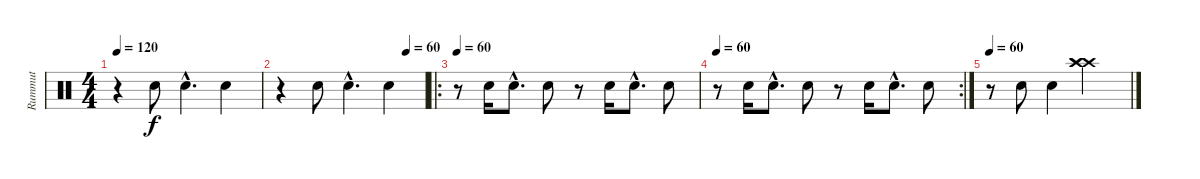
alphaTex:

\track ("Rummut" "Rummut") {instrument percussion}
\staff {score}
\articulation defaults
\ts (4 4)
\tempo 120
\clef neutral
\ks c
r.4{dy f} "Snare (hit) 2".8 "Snare (hit) 2"{hac}.4{d} "Snare (hit) 2".4 |
\tempo (60 0.875)
r.4 "Snare (hit) 2".8 "Snare (hit) 2"{hac}.4{d} "Snare (hit) 2".4 |
\ro
\tempo 60
r.8 "Snare (hit) 2".16 "Snare (hit) 2"{hac}.8{d} "Snare (hit) 2".8 r.8 "Snare (hit) 2".16 "Snare (hit) 2"{hac}.8{d} "Snare (hit) 2".8 |
\rc 2
\tempo 60
r.8 "Snare (hit) 2".16 "Snare (hit) 2"{hac}.8{d} "Snare (hit) 2".8 r.8 "Snare (hit) 2".16 "Snare (hit) 2"{hac}.8{d} "Snare (hit) 2".8 |
\tempo 60
r.8 "Snare (hit) 2".8 "Snare (hit) 2".4{volume 16} ("Crash high (hit)" "Crash high (hit)" "Crash high (hit)").2
